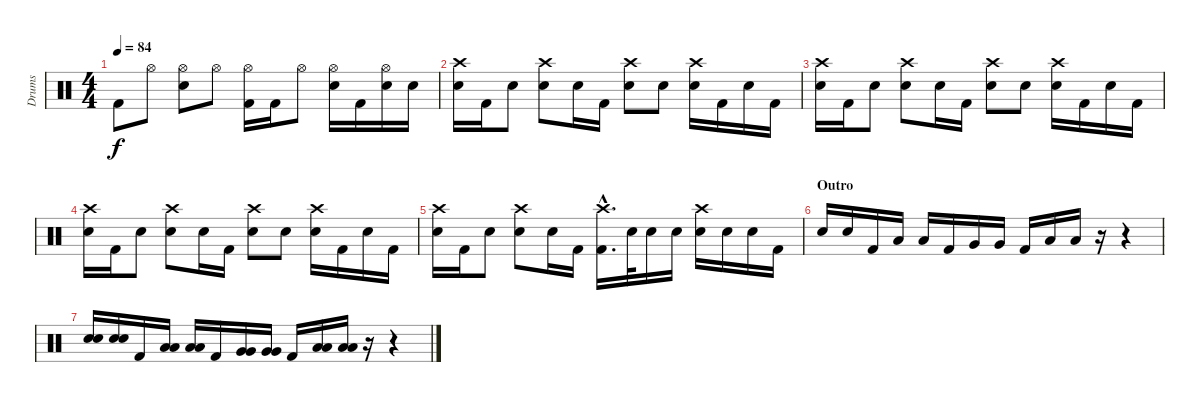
\track ("Drums" "Drums") {instrument percussion}
\staff {score}
\articulation defaults
\ts (4 4)
\tempo 84
\clef neutral
\ks c "Kick (hit) 2".8{dy f} "Hi-Hat (open)".8
("Hi-Hat (open)" "Snare (hit) 2").8 "Hi-Hat (open)".8 ("Hi-Hat (open)" "Kick (hit) 2").16 "Kick (hit) 2".16 "Hi-Hat (open)".8 ("Hi-Hat (open)" "Snare (hit) 2").16 "Kick (hit) 2".16 ("Hi-Hat (open)" "Snare (hit) 2").16 "Snare (hit) 2".16 |
("Crash high (hit)" "Snare (hit) 2").16 "Kick (hit) 2".16 "Snare (hit) 2".8 ("Crash high (hit)" "Snare (hit) 2").8 "Snare (hit) 2".16 "Kick (hit) 2".16 ("Crash high (hit)" "Snare (hit) 2").8 "Snare (hit) 2".8 ("Crash high (hit)" "Snare (hit) 2").16 "Kick (hit) 2".16 "Snare (hit) 2".16 "Kick (hit) 2".16 |
("Crash high (hit)" "Snare (hit) 2").16 "Kick (hit) 2".16 "Snare (hit) 2".8 ("Crash high (hit)" "Snare (hit) 2").8 "Snare (hit) 2".16 "Kick (hit) 2".16 ("Crash high (hit)" "Snare (hit) 2").8 "Snare (hit) 2".8 ("Crash high (hit)" "Snare (hit) 2").16 "Kick (hit) 2".16 "Snare (hit) 2".16 "Kick (hit) 2".16 |
("Crash high (hit)" "Snare (hit) 2").16 "Kick (hit) 2".16 "Snare (hit) 2".8 ("Crash high (hit)" "Snare (hit) 2").8 "Snare (hit) 2".16 "Kick (hit) 2".16 ("Crash high (hit)" "Snare (hit) 2").8 "Snare (hit) 2".8 ("Crash high (hit)" "Snare (hit) 2").16 "Kick (hit) 2".16 "Snare (hit) 2".16 "Kick (hit) 2".16 |
("Crash high (hit)" "Snare (hit) 2").16 "Kick (hit) 2".16 "Snare (hit) 2".8 ("Crash high (hit)" "Snare (hit) 2").8 "Snare (hit) 2".16 "Kick (hit) 2".16 ("Crash high (hit)"{hac} "Kick (hit) 2"{hac}).16{d} "Snare (hit) 2".32 "Snare (hit) 2".16 "Snare (hit) 2".16 ("Crash high (hit)" "Snare (hit) 2").16 "Snare (hit) 2".16 "Snare (hit) 2".16 "Kick (hit) 2".16 |
\section ("" "Outro")
"Snare (hit) 2".16 "Snare (hit) 2".16 "Kick (hit) 2".16 "Low Tom (hit)".16 "Low Tom (hit)".16 "Kick (hit) 2".16 "Very Low Tom (hit)".16 "Very Low Tom (hit)".16 "Kick (hit) 2".16 "Low Floor Tom (hit)".16 "Low Floor Tom (hit)".16 r.16 r.4 |
("Snare (hit) 2" "Snare (hit) 2").16 ("Snare (hit) 2" "Snare (hit) 2").16 "Kick (hit) 2".16 ("Low Tom (hit)" "Low Tom (hit)").16 ("Low Tom (hit)" "Low Tom (hit)").16 "Kick (hit) 2".16 ("Very Low Tom (hit)" "Very Low Tom (hit)").16 ("Very Low Tom (hit)" "Very Low Tom (hit)").16 "Kick (hit) 2".16 ("Low Floor Tom (hit)" "Low Floor Tom (hit)").16 ("Low Floor Tom (hit)" "Low Floor Tom (hit)").16 r.16 r.4
